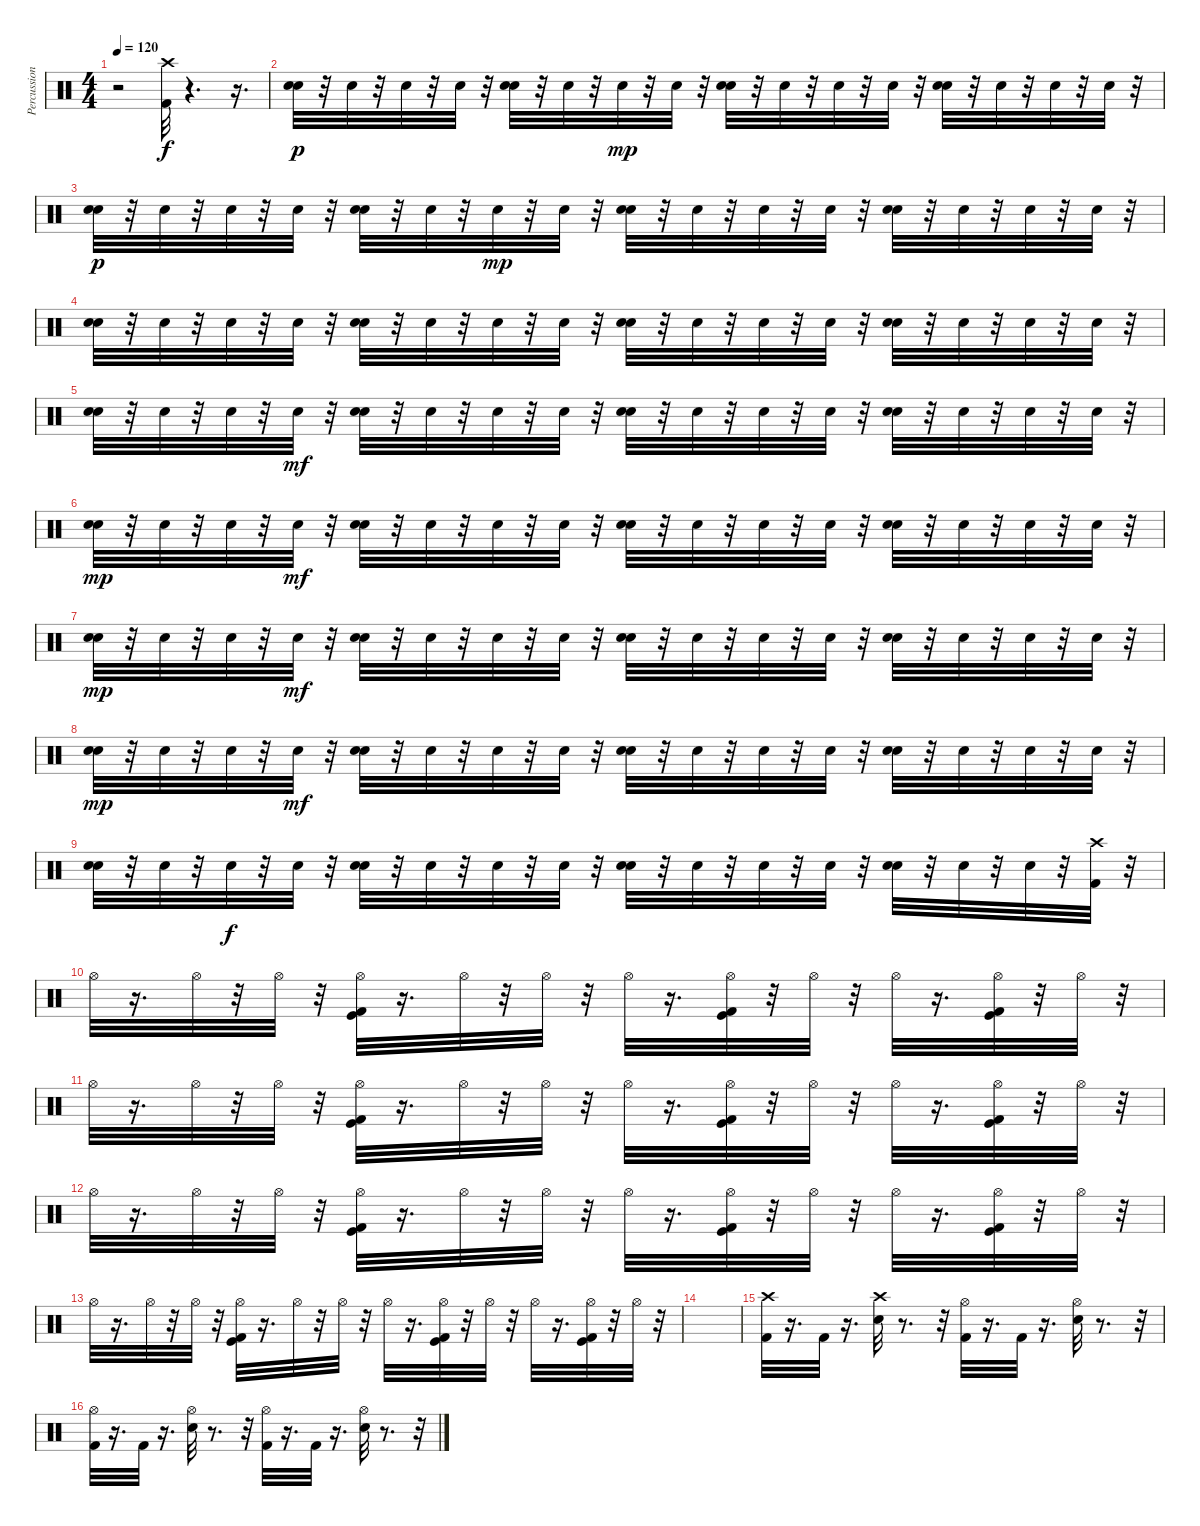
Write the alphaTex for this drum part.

\track ("Percussion" "Percussion") {instrument percussion}
\staff {score}
\articulation defaults
\ts (4 4)
\tempo 120
\clef neutral
\ks c
r.2{dy f} ("Crash high (hit)" "Kick (hit) 2").32 r.4{d} r.16{d} |
("Electric Snare (hit)" "Snare (hit) 2").32{dy p} r.32 "Snare (hit) 2".32 r.32 "Snare (hit) 2".32 r.32 "Snare (hit) 2".32 r.32 ("Snare (hit) 2" "Electric Snare (hit)").32 r.32 "Snare (hit) 2".32 r.32 "Snare (hit) 2".32{dy mp} r.32 "Snare (hit) 2".32 r.32 ("Electric Snare (hit)" "Snare (hit) 2").32 r.32 "Snare (hit) 2".32 r.32 "Snare (hit) 2".32 r.32 "Snare (hit) 2".32 r.32 ("Snare (hit) 2" "Electric Snare (hit)").32 r.32 "Snare (hit) 2".32 r.32 "Snare (hit) 2".32 r.32 "Snare (hit) 2".32 r.32 |
("Electric Snare (hit)" "Snare (hit) 2").32{dy p} r.32 "Snare (hit) 2".32 r.32 "Snare (hit) 2".32 r.32 "Snare (hit) 2".32 r.32 ("Snare (hit) 2" "Electric Snare (hit)").32 r.32 "Snare (hit) 2".32 r.32 "Snare (hit) 2".32{dy mp} r.32 "Snare (hit) 2".32 r.32 ("Electric Snare (hit)" "Snare (hit) 2").32 r.32 "Snare (hit) 2".32 r.32 "Snare (hit) 2".32 r.32 "Snare (hit) 2".32 r.32 ("Snare (hit) 2" "Electric Snare (hit)").32 r.32 "Snare (hit) 2".32 r.32 "Snare (hit) 2".32 r.32 "Snare (hit) 2".32 r.32 |
("Electric Snare (hit)" "Snare (hit) 2").32 r.32 "Snare (hit) 2".32 r.32 "Snare (hit) 2".32 r.32 "Snare (hit) 2".32 r.32 ("Snare (hit) 2" "Electric Snare (hit)").32 r.32 "Snare (hit) 2".32 r.32 "Snare (hit) 2".32 r.32 "Snare (hit) 2".32 r.32 ("Electric Snare (hit)" "Snare (hit) 2").32 r.32 "Snare (hit) 2".32 r.32 "Snare (hit) 2".32 r.32 "Snare (hit) 2".32 r.32 ("Snare (hit) 2" "Electric Snare (hit)").32 r.32 "Snare (hit) 2".32 r.32 "Snare (hit) 2".32 r.32 "Snare (hit) 2".32 r.32 |
("Electric Snare (hit)" "Snare (hit) 2").32 r.32 "Snare (hit) 2".32 r.32 "Snare (hit) 2".32 r.32 "Snare (hit) 2".32{dy mf} r.32 ("Snare (hit) 2" "Electric Snare (hit)").32 r.32 "Snare (hit) 2".32 r.32 "Snare (hit) 2".32 r.32 "Snare (hit) 2".32 r.32 ("Electric Snare (hit)" "Snare (hit) 2").32 r.32 "Snare (hit) 2".32 r.32 "Snare (hit) 2".32 r.32 "Snare (hit) 2".32 r.32 ("Snare (hit) 2" "Electric Snare (hit)").32 r.32 "Snare (hit) 2".32 r.32 "Snare (hit) 2".32 r.32 "Snare (hit) 2".32 r.32 |
("Electric Snare (hit)" "Snare (hit) 2").32{dy mp} r.32 "Snare (hit) 2".32 r.32 "Snare (hit) 2".32 r.32 "Snare (hit) 2".32{dy mf} r.32 ("Snare (hit) 2" "Electric Snare (hit)").32 r.32 "Snare (hit) 2".32 r.32 "Snare (hit) 2".32 r.32 "Snare (hit) 2".32 r.32 ("Electric Snare (hit)" "Snare (hit) 2").32 r.32 "Snare (hit) 2".32 r.32 "Snare (hit) 2".32 r.32 "Snare (hit) 2".32 r.32 ("Snare (hit) 2" "Electric Snare (hit)").32 r.32 "Snare (hit) 2".32 r.32 "Snare (hit) 2".32 r.32 "Snare (hit) 2".32 r.32 |
("Electric Snare (hit)" "Snare (hit) 2").32{dy mp} r.32 "Snare (hit) 2".32 r.32 "Snare (hit) 2".32 r.32 "Snare (hit) 2".32{dy mf} r.32 ("Snare (hit) 2" "Electric Snare (hit)").32 r.32 "Snare (hit) 2".32 r.32 "Snare (hit) 2".32 r.32 "Snare (hit) 2".32 r.32 ("Electric Snare (hit)" "Snare (hit) 2").32 r.32 "Snare (hit) 2".32 r.32 "Snare (hit) 2".32 r.32 "Snare (hit) 2".32 r.32 ("Snare (hit) 2" "Electric Snare (hit)").32 r.32 "Snare (hit) 2".32 r.32 "Snare (hit) 2".32 r.32 "Snare (hit) 2".32 r.32 |
("Electric Snare (hit)" "Snare (hit) 2").32{dy mp} r.32 "Snare (hit) 2".32 r.32 "Snare (hit) 2".32 r.32 "Snare (hit) 2".32{dy mf} r.32 ("Snare (hit) 2" "Electric Snare (hit)").32 r.32 "Snare (hit) 2".32 r.32 "Snare (hit) 2".32 r.32 "Snare (hit) 2".32 r.32 ("Electric Snare (hit)" "Snare (hit) 2").32 r.32 "Snare (hit) 2".32 r.32 "Snare (hit) 2".32 r.32 "Snare (hit) 2".32 r.32 ("Snare (hit) 2" "Electric Snare (hit)").32 r.32 "Snare (hit) 2".32 r.32 "Snare (hit) 2".32 r.32 "Snare (hit) 2".32 r.32 |
("Electric Snare (hit)" "Snare (hit) 2").32 r.32 "Snare (hit) 2".32 r.32 "Snare (hit) 2".32{dy f} r.32 "Snare (hit) 2".32 r.32 ("Snare (hit) 2" "Electric Snare (hit)").32 r.32 "Snare (hit) 2".32 r.32 "Snare (hit) 2".32 r.32 "Snare (hit) 2".32 r.32 ("Electric Snare (hit)" "Snare (hit) 2").32 r.32 "Snare (hit) 2".32 r.32 "Snare (hit) 2".32 r.32 "Snare (hit) 2".32 r.32 ("Snare (hit) 2" "Electric Snare (hit)").32 r.32 "Snare (hit) 2".32 r.32 "Snare (hit) 2".32 r.32 ("Crash high (hit)" "Kick (hit) 2").32 r.32 |
"Hi-Hat (open)".32 r.16{d} "Hi-Hat (open)".32 r.32 "Hi-Hat (open)".32 r.32 ("Kick (hit)" "Kick (hit) 2" "Hi-Hat (open)").32 r.16{d} "Hi-Hat (open)".32 r.32 "Hi-Hat (open)".32 r.32 "Hi-Hat (open)".32 r.16{d} ("Kick (hit) 2" "Hi-Hat (open)" "Kick (hit)").32 r.32 "Hi-Hat (open)".32 r.32 "Hi-Hat (open)".32 r.16{d} ("Kick (hit)" "Kick (hit) 2" "Hi-Hat (open)").32 r.32 "Hi-Hat (open)".32 r.32 |
"Hi-Hat (open)".32 r.16{d} "Hi-Hat (open)".32 r.32 "Hi-Hat (open)".32 r.32 ("Hi-Hat (open)" "Kick (hit) 2" "Kick (hit)").32 r.16{d} "Hi-Hat (open)".32 r.32 "Hi-Hat (open)".32 r.32 "Hi-Hat (open)".32 r.16{d} ("Hi-Hat (open)" "Kick (hit) 2" "Kick (hit)").32 r.32 "Hi-Hat (open)".32 r.32 "Hi-Hat (open)".32 r.16{d} ("Hi-Hat (open)" "Kick (hit)" "Kick (hit) 2").32 r.32 "Hi-Hat (open)".32 r.32 |
"Hi-Hat (open)".32 r.16{d} "Hi-Hat (open)".32 r.32 "Hi-Hat (open)".32 r.32 ("Hi-Hat (open)" "Kick (hit)" "Kick (hit) 2").32 r.16{d} "Hi-Hat (open)".32 r.32 "Hi-Hat (open)".32 r.32 "Hi-Hat (open)".32 r.16{d} ("Hi-Hat (open)" "Kick (hit) 2" "Kick (hit)").32 r.32 "Hi-Hat (open)".32 r.32 "Hi-Hat (open)".32 r.16{d} ("Hi-Hat (open)" "Kick (hit)" "Kick (hit) 2").32 r.32 "Hi-Hat (open)".32 r.32 |
"Hi-Hat (open)".32 r.16{d} "Hi-Hat (open)".32 r.32 "Hi-Hat (open)".32 r.32 ("Hi-Hat (open)" "Kick (hit)" "Kick (hit) 2").32 r.16{d} "Hi-Hat (open)".32 r.32 "Hi-Hat (open)".32 r.32 "Hi-Hat (open)".32 r.16{d} ("Hi-Hat (open)" "Kick (hit) 2" "Kick (hit)").32 r.32 "Hi-Hat (open)".32 r.32 "Hi-Hat (open)".32 r.16{d} ("Hi-Hat (open)" "Kick (hit)" "Kick (hit) 2").32 r.32 "Hi-Hat (open)".32 r.32 |
|
("Kick (hit) 2" "Crash high (hit)").32 r.16{d} "Kick (hit) 2".32 r.16{d} ("Electric Snare (hit)" "Crash high (hit)").32 r.8{d} r.32 ("Kick (hit) 2" "Hi-Hat (open)").32 r.16{d} "Kick (hit) 2".32 r.16{d} ("Electric Snare (hit)" "Hi-Hat (open)").32 r.8{d} r.32 |
("Kick (hit) 2" "Hi-Hat (open)").32 r.16{d} "Kick (hit) 2".32 r.16{d} ("Electric Snare (hit)" "Hi-Hat (open)").32 r.8{d} r.32 ("Kick (hit) 2" "Hi-Hat (open)").32 r.16{d} "Kick (hit) 2".32 r.16{d} ("Electric Snare (hit)" "Hi-Hat (open)").32 r.8{d} r.32
